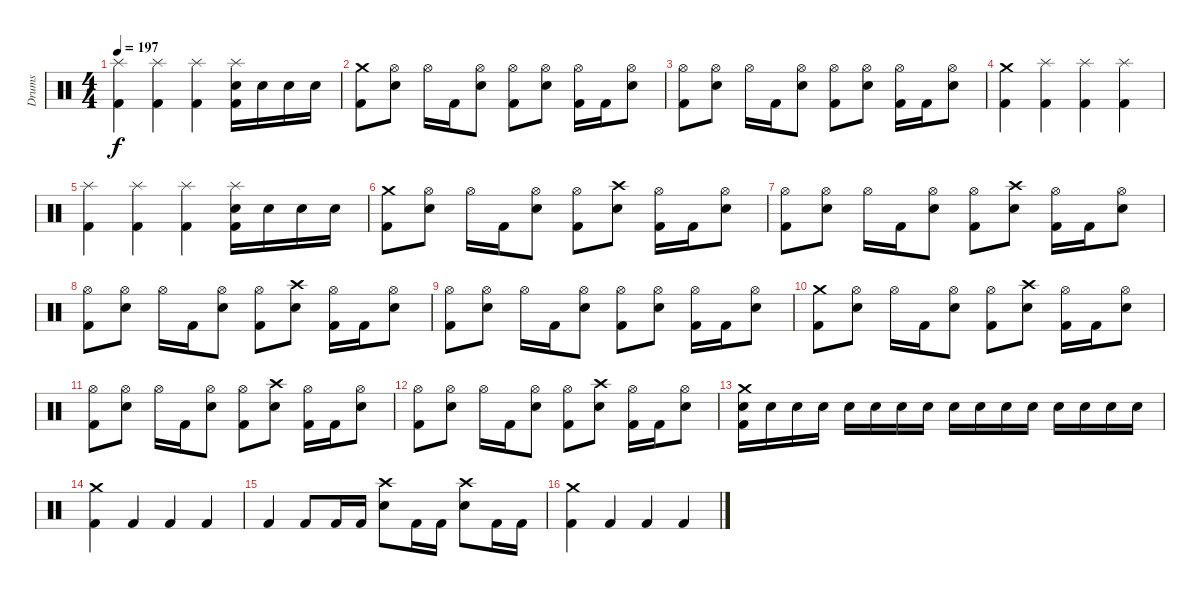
\track ("Drums" "Drums") {instrument percussion}
\staff {score}
\articulation defaults
\ts (4 4)
\tempo 197
\clef neutral
\ks c
("Splash (hit)" "Kick (hit) 2").4{dy f} ("Splash (hit)" "Kick (hit) 2").4 ("Splash (hit)" "Kick (hit) 2").4 ("Splash (hit)" "Snare (hit) 2" "Kick (hit) 2").16 "Snare (hit) 2".16 "Snare (hit) 2".16 "Snare (hit) 2".16 |
("Crash medium (hit)" "Kick (hit) 2").8 ("Hi-Hat (open)" "Snare (hit) 2").8 "Hi-Hat (open)".16 "Kick (hit) 2".16 ("Hi-Hat (open)" "Snare (hit) 2").8 ("Hi-Hat (open)" "Kick (hit) 2").8 ("Hi-Hat (open)" "Snare (hit) 2").8 ("Hi-Hat (open)" "Kick (hit) 2").16 "Kick (hit) 2".16 ("Hi-Hat (open)" "Snare (hit) 2").8 |
("Hi-Hat (open)" "Kick (hit) 2").8 ("Hi-Hat (open)" "Snare (hit) 2").8 "Hi-Hat (open)".16 "Kick (hit) 2".16 ("Hi-Hat (open)" "Snare (hit) 2").8 ("Hi-Hat (open)" "Kick (hit) 2").8 ("Hi-Hat (open)" "Snare (hit) 2").8 ("Hi-Hat (open)" "Kick (hit) 2").16 "Kick (hit) 2".16 ("Hi-Hat (open)" "Snare (hit) 2").8 |
("Crash medium (hit)" "Kick (hit) 2").4 ("Splash (hit)" "Kick (hit) 2").4 ("Splash (hit)" "Kick (hit) 2").4 ("Splash (hit)" "Kick (hit) 2").4 |
("Splash (hit)" "Kick (hit) 2").4 ("Splash (hit)" "Kick (hit) 2").4 ("Splash (hit)" "Kick (hit) 2").4 ("Splash (hit)" "Snare (hit) 2" "Kick (hit) 2").16 "Snare (hit) 2".16 "Snare (hit) 2".16 "Snare (hit) 2".16 |
("Crash medium (hit)" "Kick (hit) 2").8 ("Hi-Hat (open)" "Snare (hit) 2").8 "Hi-Hat (open)".16 "Kick (hit) 2".16 ("Hi-Hat (open)" "Snare (hit) 2").8 ("Hi-Hat (open)" "Kick (hit) 2").8 ("Crash high (hit)" "Snare (hit) 2").8 ("Hi-Hat (open)" "Kick (hit) 2").16 "Kick (hit) 2".16 ("Hi-Hat (open)" "Snare (hit) 2").8 |
("Hi-Hat (open)" "Kick (hit) 2").8 ("Hi-Hat (open)" "Snare (hit) 2").8 "Hi-Hat (open)".16 "Kick (hit) 2".16 ("Hi-Hat (open)" "Snare (hit) 2").8 ("Hi-Hat (open)" "Kick (hit) 2").8 ("Crash high (hit)" "Snare (hit) 2").8 ("Hi-Hat (open)" "Kick (hit) 2").16 "Kick (hit) 2".16 ("Hi-Hat (open)" "Snare (hit) 2").8 |
("Hi-Hat (open)" "Kick (hit) 2").8 ("Hi-Hat (open)" "Snare (hit) 2").8 "Hi-Hat (open)".16 "Kick (hit) 2".16 ("Hi-Hat (open)" "Snare (hit) 2").8 ("Hi-Hat (open)" "Kick (hit) 2").8 ("Crash high (hit)" "Snare (hit) 2").8 ("Hi-Hat (open)" "Kick (hit) 2").16 "Kick (hit) 2".16 ("Hi-Hat (open)" "Snare (hit) 2").8 |
("Hi-Hat (open)" "Kick (hit) 2").8 ("Hi-Hat (open)" "Snare (hit) 2").8 "Hi-Hat (open)".16 "Kick (hit) 2".16 ("Hi-Hat (open)" "Snare (hit) 2").8 ("Hi-Hat (open)" "Kick (hit) 2").8 ("Hi-Hat (open)" "Snare (hit) 2").8 ("Hi-Hat (open)" "Kick (hit) 2").16 "Kick (hit) 2".16 ("Hi-Hat (open)" "Snare (hit) 2").8 |
("Crash medium (hit)" "Kick (hit) 2").8 ("Hi-Hat (open)" "Snare (hit) 2").8 "Hi-Hat (open)".16 "Kick (hit) 2".16 ("Hi-Hat (open)" "Snare (hit) 2").8 ("Hi-Hat (open)" "Kick (hit) 2").8 ("Crash high (hit)" "Snare (hit) 2").8 ("Hi-Hat (open)" "Kick (hit) 2").16 "Kick (hit) 2".16 ("Hi-Hat (open)" "Snare (hit) 2").8 |
("Hi-Hat (open)" "Kick (hit) 2").8 ("Hi-Hat (open)" "Snare (hit) 2").8 "Hi-Hat (open)".16 "Kick (hit) 2".16 ("Hi-Hat (open)" "Snare (hit) 2").8 ("Hi-Hat (open)" "Kick (hit) 2").8 ("Crash high (hit)" "Snare (hit) 2").8 ("Hi-Hat (open)" "Kick (hit) 2").16 "Kick (hit) 2".16 ("Hi-Hat (open)" "Snare (hit) 2").8 |
("Hi-Hat (open)" "Kick (hit) 2").8 ("Hi-Hat (open)" "Snare (hit) 2").8 "Hi-Hat (open)".16 "Kick (hit) 2".16 ("Hi-Hat (open)" "Snare (hit) 2").8 ("Hi-Hat (open)" "Kick (hit) 2").8 ("Crash high (hit)" "Snare (hit) 2").8 ("Hi-Hat (open)" "Kick (hit) 2").16 "Kick (hit) 2".16 ("Hi-Hat (open)" "Snare (hit) 2").8 |
("Crash medium (hit)" "Snare (hit) 2" "Kick (hit) 2").16 "Snare (hit) 2".16 "Snare (hit) 2".16 "Snare (hit) 2".16 "Snare (hit) 2".16 "Snare (hit) 2".16 "Snare (hit) 2".16 "Snare (hit) 2".16 "Snare (hit) 2".16 "Snare (hit) 2".16 "Snare (hit) 2".16 "Snare (hit) 2".16 "Snare (hit) 2".16 "Snare (hit) 2".16 "Snare (hit) 2".16 "Snare (hit) 2".16 |
("Crash medium (hit)" "Kick (hit) 2").4 "Kick (hit) 2".4 "Kick (hit) 2".4 "Kick (hit) 2".4 |
"Kick (hit) 2".4 "Kick (hit) 2".8 "Kick (hit) 2".16 "Kick (hit) 2".16 ("Crash high (hit)" "Snare (hit) 2").8 "Kick (hit) 2".16 "Kick (hit) 2".16 ("Crash high (hit)" "Snare (hit) 2").8 "Kick (hit) 2".16 "Kick (hit) 2".16 |
("Crash medium (hit)" "Kick (hit) 2").4 "Kick (hit) 2".4 "Kick (hit) 2".4 "Kick (hit) 2".4
